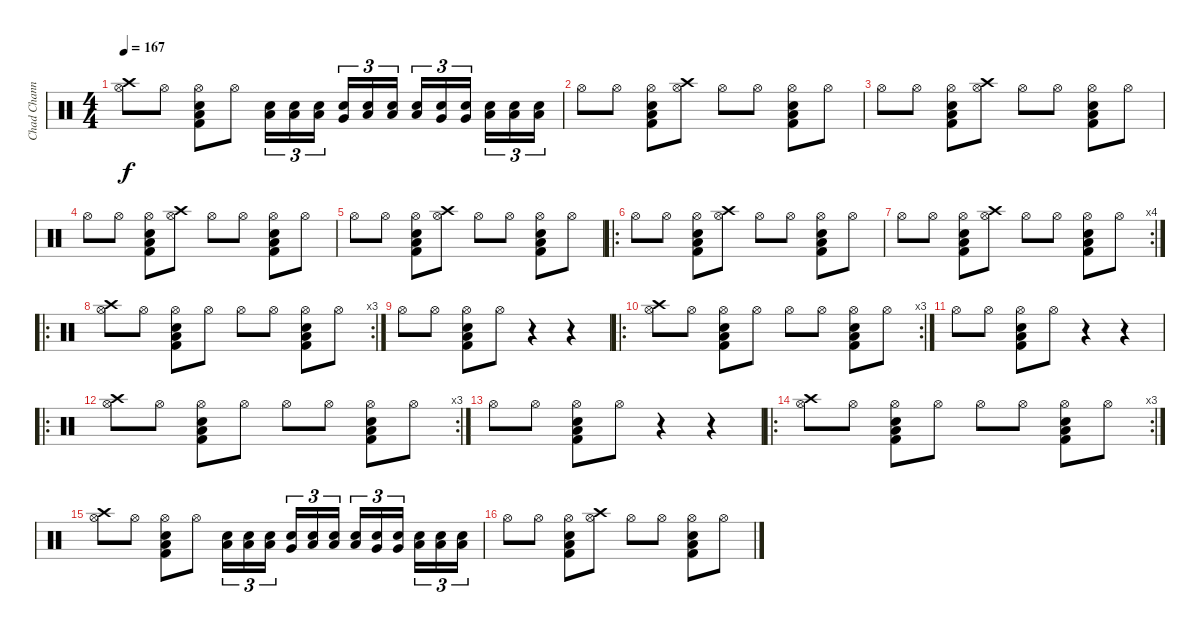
\track ("Chad Channing" "Chad Chann") {instrument percussion}
\staff {score}
\articulation defaults
\ts (4 4)
\tempo 167
\clef neutral
\ks c
("Crash high (hit)" "Hi-Hat (open)").8{dy f} "Hi-Hat (open)".8 ("Snare (hit) 2" "Hi-Hat (open)" "Low Tom (hit)" "Kick (hit) 2").8 "Hi-Hat (open)".8 ("Low Tom (hit)" "Snare (hit) 2").16{tu (3 2)} ("Low Tom (hit)" "Snare (hit) 2").16{tu (3 2)} ("Low Floor Tom (hit)" "Snare (hit) 2").16{tu (3 2)} ("Very Low Tom (hit)" "Snare (hit) 2").16{tu (3 2)} ("Low Tom (hit)" "Snare (hit) 2").16{tu (3 2)} ("Low Tom (hit)" "Snare (hit) 2").16{tu (3 2)} ("Low Floor Tom (hit)" "Snare (hit) 2").16{tu (3 2)} ("Very Low Tom (hit)" "Snare (hit) 2").16{tu (3 2)} ("Very Low Tom (hit)" "Snare (hit) 2").16{tu (3 2)} ("Low Tom (hit)" "Snare (hit) 2").16{tu (3 2)} ("Low Tom (hit)" "Snare (hit) 2").16{tu (3 2)} ("Low Tom (hit)" "Snare (hit) 2").16{tu (3 2)} |
"Hi-Hat (open)".8 "Hi-Hat (open)".8 ("Snare (hit) 2" "Low Tom (hit)" "Hi-Hat (open)" "Kick (hit) 2").8 ("Crash high (hit)" "Hi-Hat (open)").8 "Hi-Hat (open)".8 "Hi-Hat (open)".8 ("Snare (hit) 2" "Low Tom (hit)" "Hi-Hat (open)" "Kick (hit) 2").8 "Hi-Hat (open)".8 |
"Hi-Hat (open)".8 "Hi-Hat (open)".8 ("Snare (hit) 2" "Low Tom (hit)" "Hi-Hat (open)" "Kick (hit) 2").8 ("Crash high (hit)" "Hi-Hat (open)").8 "Hi-Hat (open)".8 "Hi-Hat (open)".8 ("Snare (hit) 2" "Low Tom (hit)" "Hi-Hat (open)" "Kick (hit) 2").8 "Hi-Hat (open)".8 |
"Hi-Hat (open)".8 "Hi-Hat (open)".8 ("Snare (hit) 2" "Low Tom (hit)" "Hi-Hat (open)" "Kick (hit) 2").8 ("Crash high (hit)" "Hi-Hat (open)").8 "Hi-Hat (open)".8 "Hi-Hat (open)".8 ("Snare (hit) 2" "Low Tom (hit)" "Hi-Hat (open)" "Kick (hit) 2").8 "Hi-Hat (open)".8 |
"Hi-Hat (open)".8 "Hi-Hat (open)".8 ("Snare (hit) 2" "Low Tom (hit)" "Hi-Hat (open)" "Kick (hit) 2").8 ("Crash high (hit)" "Hi-Hat (open)").8 "Hi-Hat (open)".8 "Hi-Hat (open)".8 ("Snare (hit) 2" "Low Tom (hit)" "Hi-Hat (open)" "Kick (hit) 2").8 "Hi-Hat (open)".8 |
\ro "Hi-Hat (open)".8 "Hi-Hat (open)".8
("Snare (hit) 2" "Low Tom (hit)" "Hi-Hat (open)" "Kick (hit) 2").8 ("Crash high (hit)" "Hi-Hat (open)").8 "Hi-Hat (open)".8 "Hi-Hat (open)".8 ("Snare (hit) 2" "Low Tom (hit)" "Hi-Hat (open)" "Kick (hit) 2").8 "Hi-Hat (open)".8 |
\rc 4 "Hi-Hat (open)".8 "Hi-Hat (open)".8
("Snare (hit) 2" "Low Tom (hit)" "Hi-Hat (open)" "Kick (hit) 2").8 ("Crash high (hit)" "Hi-Hat (open)").8 "Hi-Hat (open)".8 "Hi-Hat (open)".8 ("Snare (hit) 2" "Low Tom (hit)" "Hi-Hat (open)" "Kick (hit) 2").8 "Hi-Hat (open)".8 |
\ro
\rc 3
("Crash high (hit)" "Hi-Hat (open)").8 "Hi-Hat (open)".8 ("Snare (hit) 2" "Hi-Hat (open)" "Low Tom (hit)" "Kick (hit) 2").8 "Hi-Hat (open)".8 "Hi-Hat (open)".8 "Hi-Hat (open)".8 ("Snare (hit) 2" "Hi-Hat (open)" "Low Tom (hit)" "Kick (hit) 2").8 "Hi-Hat (open)".8 |
"Hi-Hat (open)".8 "Hi-Hat (open)".8 ("Snare (hit) 2" "Hi-Hat (open)" "Kick (hit) 2" "Low Tom (hit)").8 "Hi-Hat (open)".8 r.4 r.4 |
\ro
\rc 3
("Crash high (hit)" "Hi-Hat (open)").8 "Hi-Hat (open)".8 ("Snare (hit) 2" "Hi-Hat (open)" "Low Tom (hit)" "Kick (hit) 2").8 "Hi-Hat (open)".8 "Hi-Hat (open)".8 "Hi-Hat (open)".8 ("Snare (hit) 2" "Hi-Hat (open)" "Low Tom (hit)" "Kick (hit) 2").8 "Hi-Hat (open)".8 |
"Hi-Hat (open)".8 "Hi-Hat (open)".8 ("Snare (hit) 2" "Hi-Hat (open)" "Kick (hit) 2" "Low Tom (hit)").8 "Hi-Hat (open)".8 r.4 r.4 |
\ro
\rc 3
("Crash high (hit)" "Hi-Hat (open)").8 "Hi-Hat (open)".8 ("Snare (hit) 2" "Hi-Hat (open)" "Low Tom (hit)" "Kick (hit) 2").8 "Hi-Hat (open)".8 "Hi-Hat (open)".8 "Hi-Hat (open)".8 ("Snare (hit) 2" "Hi-Hat (open)" "Low Tom (hit)" "Kick (hit) 2").8 "Hi-Hat (open)".8 |
"Hi-Hat (open)".8 "Hi-Hat (open)".8 ("Snare (hit) 2" "Hi-Hat (open)" "Kick (hit) 2" "Low Tom (hit)").8 "Hi-Hat (open)".8 r.4 r.4 |
\ro
\rc 3
("Crash high (hit)" "Hi-Hat (open)").8 "Hi-Hat (open)".8 ("Snare (hit) 2" "Hi-Hat (open)" "Low Tom (hit)" "Kick (hit) 2").8 "Hi-Hat (open)".8 "Hi-Hat (open)".8 "Hi-Hat (open)".8 ("Snare (hit) 2" "Hi-Hat (open)" "Low Tom (hit)" "Kick (hit) 2").8 "Hi-Hat (open)".8 |
("Crash high (hit)" "Hi-Hat (open)").8 "Hi-Hat (open)".8 ("Snare (hit) 2" "Hi-Hat (open)" "Low Tom (hit)" "Kick (hit) 2").8 "Hi-Hat (open)".8 ("Low Tom (hit)" "Snare (hit) 2").16{tu (3 2)} ("Low Tom (hit)" "Snare (hit) 2").16{tu (3 2)} ("Low Floor Tom (hit)" "Snare (hit) 2").16{tu (3 2)} ("Very Low Tom (hit)" "Snare (hit) 2").16{tu (3 2)} ("Low Tom (hit)" "Snare (hit) 2").16{tu (3 2)} ("Low Tom (hit)" "Snare (hit) 2").16{tu (3 2)} ("Low Floor Tom (hit)" "Snare (hit) 2").16{tu (3 2)} ("Very Low Tom (hit)" "Snare (hit) 2").16{tu (3 2)} ("Very Low Tom (hit)" "Snare (hit) 2").16{tu (3 2)} ("Low Tom (hit)" "Snare (hit) 2").16{tu (3 2)} ("Low Tom (hit)" "Snare (hit) 2").16{tu (3 2)} ("Low Tom (hit)" "Snare (hit) 2").16{tu (3 2)} |
"Hi-Hat (open)".8 "Hi-Hat (open)".8 ("Snare (hit) 2" "Low Tom (hit)" "Hi-Hat (open)" "Kick (hit) 2").8 ("Crash high (hit)" "Hi-Hat (open)").8 "Hi-Hat (open)".8 "Hi-Hat (open)".8 ("Snare (hit) 2" "Low Tom (hit)" "Hi-Hat (open)" "Kick (hit) 2").8 "Hi-Hat (open)".8
